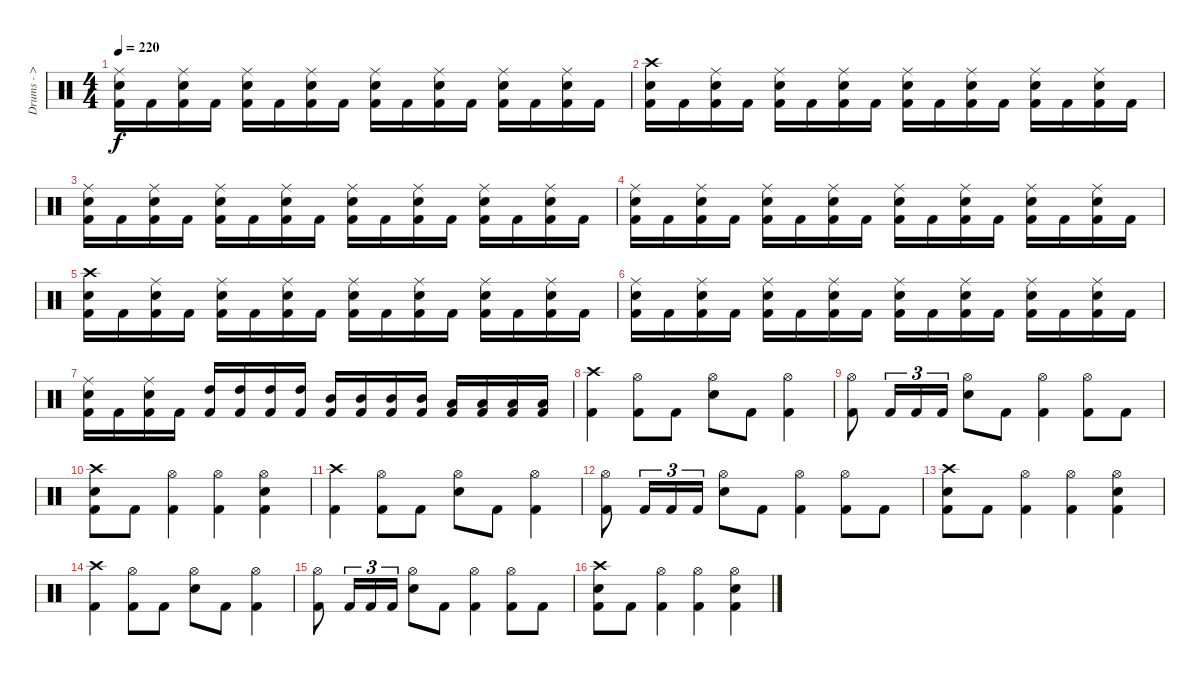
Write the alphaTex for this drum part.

\track ("Drums - > Nicholas" "Drums - > ") {instrument percussion}
\staff {score}
\articulation defaults
\ts (4 4)
\tempo 220
\clef neutral
\ks c
("Kick (hit) 2" "Snare (hit) 2" "Ride (middle)").16{dy f} "Kick (hit) 2".16 ("Kick (hit) 2" "Snare (hit) 2" "Ride (middle)").16 "Kick (hit) 2".16 ("Kick (hit) 2" "Snare (hit) 2" "Ride (middle)").16 "Kick (hit) 2".16 ("Kick (hit) 2" "Snare (hit) 2" "Ride (middle)").16 "Kick (hit) 2".16 ("Kick (hit) 2" "Snare (hit) 2" "Ride (middle)").16 "Kick (hit) 2".16 ("Kick (hit) 2" "Snare (hit) 2" "Ride (middle)").16 "Kick (hit) 2".16 ("Kick (hit) 2" "Snare (hit) 2" "Ride (middle)").16 "Kick (hit) 2".16 ("Kick (hit) 2" "Snare (hit) 2" "Ride (middle)").16 "Kick (hit) 2".16 |
("Kick (hit) 2" "Snare (hit) 2" "Crash high (hit)").16 "Kick (hit) 2".16 ("Kick (hit) 2" "Snare (hit) 2" "Ride (middle)").16 "Kick (hit) 2".16 ("Kick (hit) 2" "Snare (hit) 2" "Ride (middle)").16 "Kick (hit) 2".16 ("Kick (hit) 2" "Snare (hit) 2" "Ride (middle)").16 "Kick (hit) 2".16 ("Kick (hit) 2" "Snare (hit) 2" "Ride (middle)").16 "Kick (hit) 2".16 ("Kick (hit) 2" "Snare (hit) 2" "Ride (middle)").16 "Kick (hit) 2".16 ("Kick (hit) 2" "Snare (hit) 2" "Ride (middle)").16 "Kick (hit) 2".16 ("Kick (hit) 2" "Snare (hit) 2" "Ride (middle)").16 "Kick (hit) 2".16 |
("Kick (hit) 2" "Snare (hit) 2" "Ride (middle)").16 "Kick (hit) 2".16 ("Kick (hit) 2" "Snare (hit) 2" "Ride (middle)").16 "Kick (hit) 2".16 ("Kick (hit) 2" "Snare (hit) 2" "Ride (middle)").16 "Kick (hit) 2".16 ("Kick (hit) 2" "Snare (hit) 2" "Ride (middle)").16 "Kick (hit) 2".16 ("Kick (hit) 2" "Snare (hit) 2" "Ride (middle)").16 "Kick (hit) 2".16 ("Kick (hit) 2" "Snare (hit) 2" "Ride (middle)").16 "Kick (hit) 2".16 ("Kick (hit) 2" "Snare (hit) 2" "Ride (middle)").16 "Kick (hit) 2".16 ("Kick (hit) 2" "Snare (hit) 2" "Ride (middle)").16 "Kick (hit) 2".16 |
("Kick (hit) 2" "Snare (hit) 2" "Ride (middle)").16 "Kick (hit) 2".16 ("Kick (hit) 2" "Snare (hit) 2" "Ride (middle)").16 "Kick (hit) 2".16 ("Kick (hit) 2" "Snare (hit) 2" "Ride (middle)").16 "Kick (hit) 2".16 ("Kick (hit) 2" "Snare (hit) 2" "Ride (middle)").16 "Kick (hit) 2".16 ("Kick (hit) 2" "Snare (hit) 2" "Ride (middle)").16 "Kick (hit) 2".16 ("Kick (hit) 2" "Snare (hit) 2" "Ride (middle)").16 "Kick (hit) 2".16 ("Kick (hit) 2" "Snare (hit) 2" "Ride (middle)").16 "Kick (hit) 2".16 ("Kick (hit) 2" "Snare (hit) 2" "Ride (middle)").16 "Kick (hit) 2".16 |
("Kick (hit) 2" "Snare (hit) 2" "Crash high (hit)").16 "Kick (hit) 2".16 ("Kick (hit) 2" "Snare (hit) 2" "Ride (middle)").16 "Kick (hit) 2".16 ("Kick (hit) 2" "Snare (hit) 2" "Ride (middle)").16 "Kick (hit) 2".16 ("Kick (hit) 2" "Snare (hit) 2" "Ride (middle)").16 "Kick (hit) 2".16 ("Kick (hit) 2" "Snare (hit) 2" "Ride (middle)").16 "Kick (hit) 2".16 ("Kick (hit) 2" "Snare (hit) 2" "Ride (middle)").16 "Kick (hit) 2".16 ("Kick (hit) 2" "Snare (hit) 2" "Ride (middle)").16 "Kick (hit) 2".16 ("Kick (hit) 2" "Snare (hit) 2" "Ride (middle)").16 "Kick (hit) 2".16 |
("Kick (hit) 2" "Snare (hit) 2" "Ride (middle)").16 "Kick (hit) 2".16 ("Kick (hit) 2" "Snare (hit) 2" "Ride (middle)").16 "Kick (hit) 2".16 ("Kick (hit) 2" "Snare (hit) 2" "Ride (middle)").16 "Kick (hit) 2".16 ("Kick (hit) 2" "Snare (hit) 2" "Ride (middle)").16 "Kick (hit) 2".16 ("Kick (hit) 2" "Snare (hit) 2" "Ride (middle)").16 "Kick (hit) 2".16 ("Kick (hit) 2" "Snare (hit) 2" "Ride (middle)").16 "Kick (hit) 2".16 ("Kick (hit) 2" "Snare (hit) 2" "Ride (middle)").16 "Kick (hit) 2".16 ("Kick (hit) 2" "Snare (hit) 2" "Ride (middle)").16 "Kick (hit) 2".16 |
("Kick (hit) 2" "Snare (hit) 2" "Ride (middle)").16 "Kick (hit) 2".16 ("Kick (hit) 2" "Snare (hit) 2" "Ride (middle)").16 "Kick (hit) 2".16 ("Kick (hit) 2" "High Tom (hit)").16 ("Kick (hit) 2" "High Tom (hit)").16 ("Kick (hit) 2" "High Tom (hit)").16 ("Kick (hit) 2" "High Tom (hit)").16 ("Kick (hit) 2" "Mid Tom (hit)").16 ("Kick (hit) 2" "Mid Tom (hit)").16 ("Kick (hit) 2" "Mid Tom (hit)").16 ("Kick (hit) 2" "Mid Tom (hit)").16 ("Kick (hit) 2" "Low Tom (hit)").16 ("Kick (hit) 2" "Low Tom (hit)").16 ("Kick (hit) 2" "Low Tom (hit)").16 ("Kick (hit) 2" "Low Tom (hit)").16 |
("Kick (hit) 2" "Crash high (hit)").4 ("Kick (hit) 2" "Hi-Hat (open)").8 "Kick (hit) 2".8 ("Snare (hit) 2" "Hi-Hat (open)").8 "Kick (hit) 2".8 ("Kick (hit) 2" "Hi-Hat (open)").4 |
("Kick (hit) 2" "Hi-Hat (open)").8 "Kick (hit) 2".16{tu (3 2)} "Kick (hit) 2".16{tu (3 2)} "Kick (hit) 2".16{tu (3 2)} ("Snare (hit) 2" "Hi-Hat (open)").8 "Kick (hit) 2".8 ("Kick (hit) 2" "Hi-Hat (open)").4 ("Kick (hit) 2" "Hi-Hat (open)").8 "Kick (hit) 2".8 |
("Kick (hit) 2" "Snare (hit) 2" "Crash high (hit)").8 "Kick (hit) 2".8 ("Kick (hit) 2" "Hi-Hat (open)").4 ("Kick (hit) 2" "Hi-Hat (open)").4 ("Kick (hit) 2" "Snare (hit) 2" "Hi-Hat (open)").4 |
("Kick (hit) 2" "Crash high (hit)").4 ("Kick (hit) 2" "Hi-Hat (open)").8 "Kick (hit) 2".8 ("Snare (hit) 2" "Hi-Hat (open)").8 "Kick (hit) 2".8 ("Kick (hit) 2" "Hi-Hat (open)").4 |
("Kick (hit) 2" "Hi-Hat (open)").8 "Kick (hit) 2".16{tu (3 2)} "Kick (hit) 2".16{tu (3 2)} "Kick (hit) 2".16{tu (3 2)} ("Snare (hit) 2" "Hi-Hat (open)").8 "Kick (hit) 2".8 ("Kick (hit) 2" "Hi-Hat (open)").4 ("Kick (hit) 2" "Hi-Hat (open)").8 "Kick (hit) 2".8 |
("Kick (hit) 2" "Snare (hit) 2" "Crash high (hit)").8 "Kick (hit) 2".8 ("Kick (hit) 2" "Hi-Hat (open)").4 ("Kick (hit) 2" "Hi-Hat (open)").4 ("Kick (hit) 2" "Snare (hit) 2" "Hi-Hat (open)").4 |
("Kick (hit) 2" "Crash high (hit)").4 ("Kick (hit) 2" "Hi-Hat (open)").8 "Kick (hit) 2".8 ("Snare (hit) 2" "Hi-Hat (open)").8 "Kick (hit) 2".8 ("Kick (hit) 2" "Hi-Hat (open)").4 |
("Kick (hit) 2" "Hi-Hat (open)").8 "Kick (hit) 2".16{tu (3 2)} "Kick (hit) 2".16{tu (3 2)} "Kick (hit) 2".16{tu (3 2)} ("Snare (hit) 2" "Hi-Hat (open)").8 "Kick (hit) 2".8 ("Kick (hit) 2" "Hi-Hat (open)").4 ("Kick (hit) 2" "Hi-Hat (open)").8 "Kick (hit) 2".8 |
("Kick (hit) 2" "Snare (hit) 2" "Crash high (hit)").8 "Kick (hit) 2".8 ("Kick (hit) 2" "Hi-Hat (open)").4 ("Kick (hit) 2" "Hi-Hat (open)").4 ("Kick (hit) 2" "Snare (hit) 2" "Hi-Hat (open)").4
